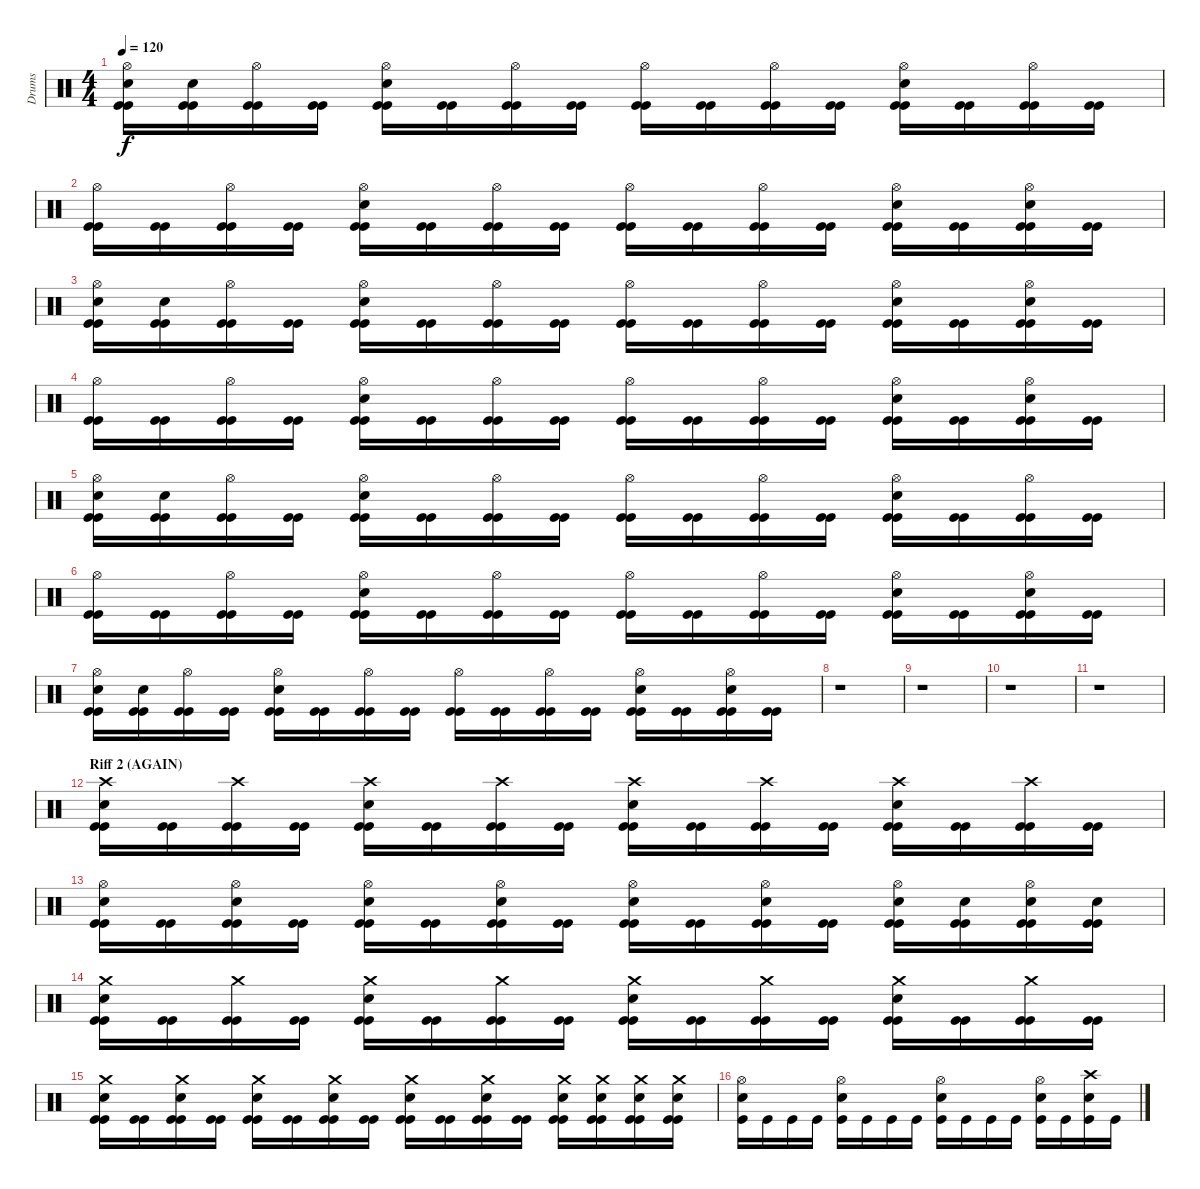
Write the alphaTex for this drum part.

\track ("Drums" "Drums") {instrument percussion}
\staff {score}
\articulation defaults
\ts (4 4)
\tempo 120
\clef neutral
\ks c
("Hi-Hat (open)" "Snare (hit) 2" "Kick (hit)" "Kick (hit)").16{dy f} ("Snare (hit) 2" "Kick (hit)" "Kick (hit)").16 ("Hi-Hat (open)" "Kick (hit)" "Kick (hit)").16 ("Kick (hit)" "Kick (hit)").16 ("Hi-Hat (open)" "Snare (hit) 2" "Kick (hit)" "Kick (hit)").16 ("Kick (hit)" "Kick (hit)").16 ("Hi-Hat (open)" "Kick (hit)" "Kick (hit)").16 ("Kick (hit)" "Kick (hit)").16 ("Hi-Hat (open)" "Kick (hit)" "Kick (hit)").16 ("Kick (hit)" "Kick (hit)").16 ("Hi-Hat (open)" "Kick (hit)" "Kick (hit)").16 ("Kick (hit)" "Kick (hit)").16 ("Hi-Hat (open)" "Snare (hit) 2" "Kick (hit)" "Kick (hit)").16 ("Kick (hit)" "Kick (hit)").16 ("Hi-Hat (open)" "Kick (hit)" "Kick (hit)").16 ("Kick (hit)" "Kick (hit)").16 |
("Hi-Hat (open)" "Kick (hit)" "Kick (hit)").16 ("Kick (hit)" "Kick (hit)").16 ("Hi-Hat (open)" "Kick (hit)" "Kick (hit)").16 ("Kick (hit)" "Kick (hit)").16 ("Hi-Hat (open)" "Snare (hit) 2" "Kick (hit)" "Kick (hit)").16 ("Kick (hit)" "Kick (hit)").16 ("Hi-Hat (open)" "Kick (hit)" "Kick (hit)").16 ("Kick (hit)" "Kick (hit)").16 ("Hi-Hat (open)" "Kick (hit)" "Kick (hit)").16 ("Kick (hit)" "Kick (hit)").16 ("Hi-Hat (open)" "Kick (hit)" "Kick (hit)").16 ("Kick (hit)" "Kick (hit)").16 ("Hi-Hat (open)" "Snare (hit) 2" "Kick (hit)" "Kick (hit)").16 ("Kick (hit)" "Kick (hit)").16 ("Hi-Hat (open)" "Snare (hit) 2" "Kick (hit)" "Kick (hit)").16 ("Kick (hit)" "Kick (hit)").16 |
("Hi-Hat (open)" "Snare (hit) 2" "Kick (hit)" "Kick (hit)").16 ("Snare (hit) 2" "Kick (hit)" "Kick (hit)").16 ("Hi-Hat (open)" "Kick (hit)" "Kick (hit)").16 ("Kick (hit)" "Kick (hit)").16 ("Hi-Hat (open)" "Snare (hit) 2" "Kick (hit)" "Kick (hit)").16 ("Kick (hit)" "Kick (hit)").16 ("Hi-Hat (open)" "Kick (hit)" "Kick (hit)").16 ("Kick (hit)" "Kick (hit)").16 ("Hi-Hat (open)" "Kick (hit)" "Kick (hit)").16 ("Kick (hit)" "Kick (hit)").16 ("Hi-Hat (open)" "Kick (hit)" "Kick (hit)").16 ("Kick (hit)" "Kick (hit)").16 ("Hi-Hat (open)" "Snare (hit) 2" "Kick (hit)" "Kick (hit)").16 ("Kick (hit)" "Kick (hit)").16 ("Hi-Hat (open)" "Snare (hit) 2" "Kick (hit)" "Kick (hit)").16 ("Kick (hit)" "Kick (hit)").16 |
("Hi-Hat (open)" "Kick (hit)" "Kick (hit)").16 ("Kick (hit)" "Kick (hit)").16 ("Hi-Hat (open)" "Kick (hit)" "Kick (hit)").16 ("Kick (hit)" "Kick (hit)").16 ("Hi-Hat (open)" "Snare (hit) 2" "Kick (hit)" "Kick (hit)").16 ("Kick (hit)" "Kick (hit)").16 ("Hi-Hat (open)" "Kick (hit)" "Kick (hit)").16 ("Kick (hit)" "Kick (hit)").16 ("Hi-Hat (open)" "Kick (hit)" "Kick (hit)").16 ("Kick (hit)" "Kick (hit)").16 ("Hi-Hat (open)" "Kick (hit)" "Kick (hit)").16 ("Kick (hit)" "Kick (hit)").16 ("Hi-Hat (open)" "Snare (hit) 2" "Kick (hit)" "Kick (hit)").16 ("Kick (hit)" "Kick (hit)").16 ("Hi-Hat (open)" "Snare (hit) 2" "Kick (hit)" "Kick (hit)").16 ("Kick (hit)" "Kick (hit)").16 |
("Hi-Hat (open)" "Snare (hit) 2" "Kick (hit)" "Kick (hit)").16 ("Snare (hit) 2" "Kick (hit)" "Kick (hit)").16 ("Hi-Hat (open)" "Kick (hit)" "Kick (hit)").16 ("Kick (hit)" "Kick (hit)").16 ("Hi-Hat (open)" "Snare (hit) 2" "Kick (hit)" "Kick (hit)").16 ("Kick (hit)" "Kick (hit)").16 ("Hi-Hat (open)" "Kick (hit)" "Kick (hit)").16 ("Kick (hit)" "Kick (hit)").16 ("Hi-Hat (open)" "Kick (hit)" "Kick (hit)").16 ("Kick (hit)" "Kick (hit)").16 ("Hi-Hat (open)" "Kick (hit)" "Kick (hit)").16 ("Kick (hit)" "Kick (hit)").16 ("Hi-Hat (open)" "Snare (hit) 2" "Kick (hit)" "Kick (hit)").16 ("Kick (hit)" "Kick (hit)").16 ("Hi-Hat (open)" "Kick (hit)" "Kick (hit)").16 ("Kick (hit)" "Kick (hit)").16 |
("Hi-Hat (open)" "Kick (hit)" "Kick (hit)").16 ("Kick (hit)" "Kick (hit)").16 ("Hi-Hat (open)" "Kick (hit)" "Kick (hit)").16 ("Kick (hit)" "Kick (hit)").16 ("Hi-Hat (open)" "Snare (hit) 2" "Kick (hit)" "Kick (hit)").16 ("Kick (hit)" "Kick (hit)").16 ("Hi-Hat (open)" "Kick (hit)" "Kick (hit)").16 ("Kick (hit)" "Kick (hit)").16 ("Hi-Hat (open)" "Kick (hit)" "Kick (hit)").16 ("Kick (hit)" "Kick (hit)").16 ("Hi-Hat (open)" "Kick (hit)" "Kick (hit)").16 ("Kick (hit)" "Kick (hit)").16 ("Hi-Hat (open)" "Snare (hit) 2" "Kick (hit)" "Kick (hit)").16 ("Kick (hit)" "Kick (hit)").16 ("Hi-Hat (open)" "Snare (hit) 2" "Kick (hit)" "Kick (hit)").16 ("Kick (hit)" "Kick (hit)").16 |
("Hi-Hat (open)" "Snare (hit) 2" "Kick (hit)" "Kick (hit)").16 ("Snare (hit) 2" "Kick (hit)" "Kick (hit)").16 ("Hi-Hat (open)" "Kick (hit)" "Kick (hit)").16 ("Kick (hit)" "Kick (hit)").16 ("Hi-Hat (open)" "Snare (hit) 2" "Kick (hit)" "Kick (hit)").16 ("Kick (hit)" "Kick (hit)").16 ("Hi-Hat (open)" "Kick (hit)" "Kick (hit)").16 ("Kick (hit)" "Kick (hit)").16 ("Hi-Hat (open)" "Kick (hit)" "Kick (hit)").16 ("Kick (hit)" "Kick (hit)").16 ("Hi-Hat (open)" "Kick (hit)" "Kick (hit)").16 ("Kick (hit)" "Kick (hit)").16 ("Hi-Hat (open)" "Snare (hit) 2" "Kick (hit)" "Kick (hit)").16 ("Kick (hit)" "Kick (hit)").16 ("Hi-Hat (open)" "Snare (hit) 2" "Kick (hit)" "Kick (hit)").16 ("Kick (hit)" "Kick (hit)").16 |
r.1 |
r.1 |
r.1 |
r.1 |
\section ("" "Riff 2 (AGAIN)")
("Crash high (hit)" "Snare (hit) 2" "Kick (hit)" "Kick (hit)").16 ("Kick (hit)" "Kick (hit)").16 ("Crash high (hit)" "Kick (hit)" "Kick (hit)").16 ("Kick (hit)" "Kick (hit)").16 ("Crash high (hit)" "Snare (hit) 2" "Kick (hit)" "Kick (hit)").16 ("Kick (hit)" "Kick (hit)").16 ("Crash high (hit)" "Kick (hit)" "Kick (hit)").16 ("Kick (hit)" "Kick (hit)").16 ("Crash high (hit)" "Snare (hit) 2" "Kick (hit)" "Kick (hit)").16 ("Kick (hit)" "Kick (hit)").16 ("Crash high (hit)" "Kick (hit)" "Kick (hit)").16 ("Kick (hit)" "Kick (hit)").16 ("Crash high (hit)" "Snare (hit) 2" "Kick (hit)" "Kick (hit)").16 ("Kick (hit)" "Kick (hit)").16 ("Crash high (hit)" "Kick (hit)" "Kick (hit)").16 ("Kick (hit)" "Kick (hit)").16 |
("Hi-Hat (open)" "Snare (hit) 2" "Kick (hit)" "Kick (hit)").16 ("Kick (hit)" "Kick (hit)").16 ("Hi-Hat (open)" "Snare (hit) 2" "Kick (hit)" "Kick (hit)").16 ("Kick (hit)" "Kick (hit)").16 ("Hi-Hat (open)" "Snare (hit) 2" "Kick (hit)" "Kick (hit)").16 ("Kick (hit)" "Kick (hit)").16 ("Hi-Hat (open)" "Snare (hit) 2" "Kick (hit)" "Kick (hit)").16 ("Kick (hit)" "Kick (hit)").16 ("Hi-Hat (open)" "Snare (hit) 2" "Kick (hit)" "Kick (hit)").16 ("Kick (hit)" "Kick (hit)").16 ("Hi-Hat (open)" "Snare (hit) 2" "Kick (hit)" "Kick (hit)").16 ("Kick (hit)" "Kick (hit)").16 ("Hi-Hat (open)" "Snare (hit) 2" "Kick (hit)" "Kick (hit)").16 ("Snare (hit) 2" "Kick (hit)" "Kick (hit)").16 ("Hi-Hat (open)" "Snare (hit) 2" "Kick (hit)" "Kick (hit)").16 ("Snare (hit) 2" "Kick (hit)" "Kick (hit)").16 |
("Crash medium (hit)" "Snare (hit) 2" "Kick (hit)" "Kick (hit)").16 ("Kick (hit)" "Kick (hit)").16 ("Crash medium (hit)" "Kick (hit)" "Kick (hit)").16 ("Kick (hit)" "Kick (hit)").16 ("Crash medium (hit)" "Snare (hit) 2" "Kick (hit)" "Kick (hit)").16 ("Kick (hit)" "Kick (hit)").16 ("Crash medium (hit)" "Kick (hit)" "Kick (hit)").16 ("Kick (hit)" "Kick (hit)").16 ("Crash medium (hit)" "Snare (hit) 2" "Kick (hit)" "Kick (hit)").16 ("Kick (hit)" "Kick (hit)").16 ("Crash medium (hit)" "Kick (hit)" "Kick (hit)").16 ("Kick (hit)" "Kick (hit)").16 ("Crash medium (hit)" "Snare (hit) 2" "Kick (hit)" "Kick (hit)").16 ("Kick (hit)" "Kick (hit)").16 ("Crash medium (hit)" "Kick (hit)" "Kick (hit)").16 ("Kick (hit)" "Kick (hit)").16 |
("Crash medium (hit)" "Snare (hit) 2" "Kick (hit)" "Kick (hit)").16 ("Kick (hit)" "Kick (hit)").16 ("Crash medium (hit)" "Snare (hit) 2" "Kick (hit)" "Kick (hit)").16 ("Kick (hit)" "Kick (hit)").16 ("Crash medium (hit)" "Snare (hit) 2" "Kick (hit)" "Kick (hit)").16 ("Kick (hit)" "Kick (hit)").16 ("Crash medium (hit)" "Snare (hit) 2" "Kick (hit)" "Kick (hit)").16 ("Kick (hit)" "Kick (hit)").16 ("Crash medium (hit)" "Snare (hit) 2" "Kick (hit)" "Kick (hit)").16 ("Kick (hit)" "Kick (hit)").16 ("Crash medium (hit)" "Snare (hit) 2" "Kick (hit)" "Kick (hit)").16 ("Kick (hit)" "Kick (hit)").16 ("Crash medium (hit)" "Snare (hit) 2" "Kick (hit)" "Kick (hit)").16 ("Crash medium (hit)" "Snare (hit) 2" "Kick (hit)" "Kick (hit)").16 ("Crash medium (hit)" "Snare (hit) 2" "Kick (hit)" "Kick (hit)").16 ("Crash medium (hit)" "Snare (hit) 2" "Kick (hit)" "Kick (hit)").16 |
("Hi-Hat (open)" "Snare (hit) 2" "Kick (hit)").16 "Kick (hit)".16 "Kick (hit)".16 "Kick (hit)".16 ("Hi-Hat (open)" "Snare (hit) 2" "Kick (hit)").16 "Kick (hit)".16 "Kick (hit)".16 "Kick (hit)".16 ("Hi-Hat (open)" "Snare (hit) 2" "Kick (hit)").16 "Kick (hit)".16 "Kick (hit)".16 "Kick (hit)".16 ("Hi-Hat (open)" "Snare (hit) 2" "Kick (hit)").16 "Kick (hit)".16 ("Crash high (hit)" "Snare (hit) 2" "Kick (hit)").16 "Kick (hit)".16
